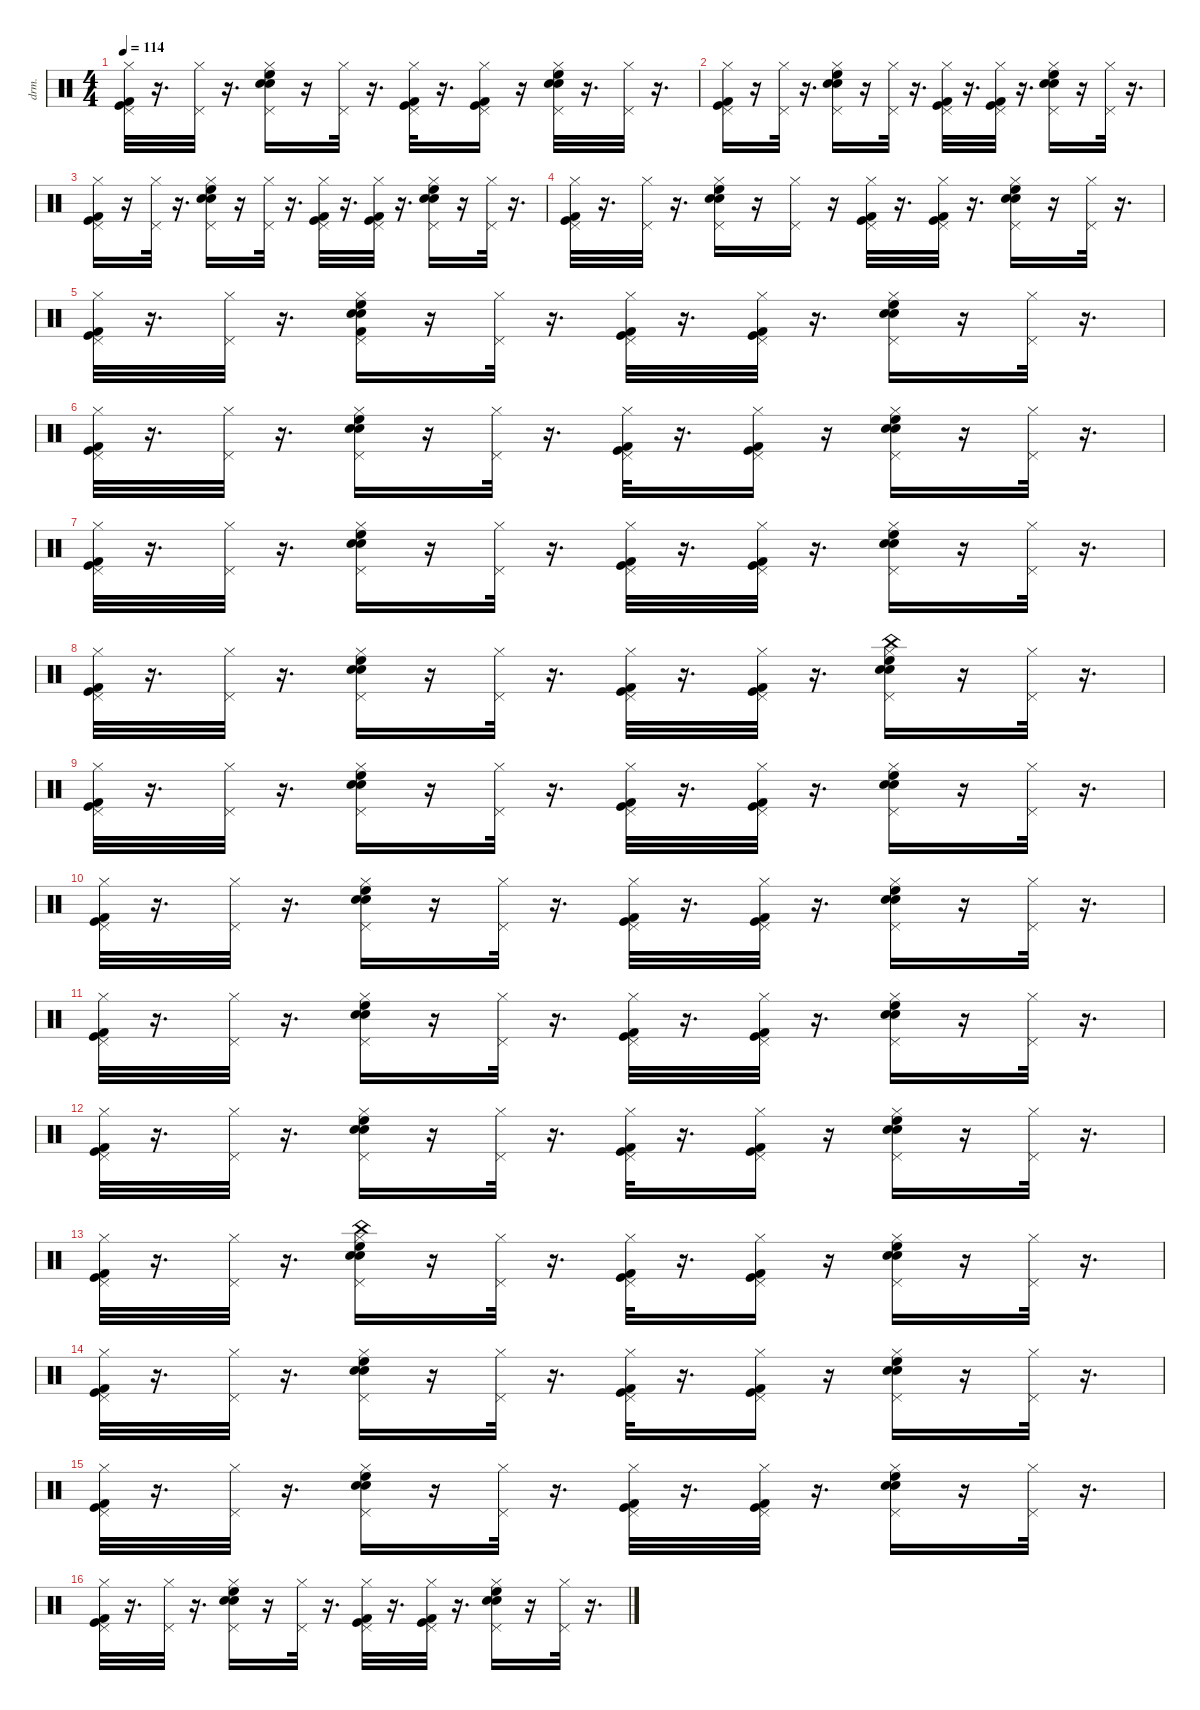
\defaultSystemsLayout 4
\hideDynamics
\bracketExtendMode nobrackets
\otherSystemsTrackNameOrientation horizontal
\track ("Drums" "drm.") {instrument percussion}
\staff {score}
\articulation defaults
\ts (4 4)
\tempo 114
\clef neutral
\ks c
("Kick (hit)" "Pedal Hi-Hat (hit)" "Kick (hit) 2" "Hi-Hat (closed)").32{dy fff} r.16{d} ("Pedal Hi-Hat (hit)" "Hi-Hat (closed)").32{dy f} r.16{d} ("Snare (hit) 2" "High Floor Tom (hit)" "Pedal Hi-Hat (hit)" "Hi-Hat (closed)" "Snare (hit) 2").16{dy fff} r.16 ("Pedal Hi-Hat (hit)" "Hi-Hat (closed)").32{dy f} r.16{d} ("Kick (hit) 2" "Kick (hit)" "Pedal Hi-Hat (hit)" "Hi-Hat (closed)").32{dy fff} r.16{d} ("Kick (hit)" "Kick (hit) 2" "Pedal Hi-Hat (hit)" "Hi-Hat (closed)").16 r.16 ("Snare (hit) 2" "Snare (hit) 2" "High Floor Tom (hit)" "Pedal Hi-Hat (hit)" "Hi-Hat (closed)").32 r.16{d} ("Pedal Hi-Hat (hit)" "Hi-Hat (closed)").32{dy f} r.16{d} |
("Kick (hit)" "Pedal Hi-Hat (hit)" "Hi-Hat (closed)" "Kick (hit) 2").16{dy fff} r.16 ("Pedal Hi-Hat (hit)" "Hi-Hat (closed)").32{dy f} r.16{d} ("High Floor Tom (hit)" "Snare (hit) 2" "Pedal Hi-Hat (hit)" "Hi-Hat (closed)" "Snare (hit) 2").16{dy fff} r.16 ("Pedal Hi-Hat (hit)" "Hi-Hat (closed)").32{dy f} r.16{d} ("Pedal Hi-Hat (hit)" "Kick (hit) 2" "Kick (hit)" "Hi-Hat (closed)").32{dy ff} r.16{d} ("Pedal Hi-Hat (hit)" "Kick (hit)" "Hi-Hat (closed)" "Kick (hit) 2").32{dy f} r.16{d} ("Snare (hit) 2" "High Floor Tom (hit)" "Pedal Hi-Hat (hit)" "Hi-Hat (closed)" "Snare (hit) 2").16{dy fff} r.16 ("Pedal Hi-Hat (hit)" "Hi-Hat (closed)").32{dy f} r.16{d} |
("Kick (hit)" "Kick (hit) 2" "Pedal Hi-Hat (hit)" "Hi-Hat (closed)").16{dy fff} r.16 ("Pedal Hi-Hat (hit)" "Hi-Hat (closed)").32{dy f} r.16{d} ("Snare (hit) 2" "Pedal Hi-Hat (hit)" "Hi-Hat (closed)" "High Floor Tom (hit)" "Snare (hit) 2").16{dy fff} r.16 ("Pedal Hi-Hat (hit)" "Hi-Hat (closed)").32{dy f} r.16{d} ("Pedal Hi-Hat (hit)" "Hi-Hat (closed)" "Kick (hit) 2" "Kick (hit)").32{dy ff} r.16{d} ("Kick (hit) 2" "Pedal Hi-Hat (hit)" "Kick (hit)" "Hi-Hat (closed)").32{dy fff} r.16{d} ("Snare (hit) 2" "High Floor Tom (hit)" "Snare (hit) 2" "Pedal Hi-Hat (hit)" "Hi-Hat (closed)").16 r.16 ("Pedal Hi-Hat (hit)" "Hi-Hat (closed)").32{dy f} r.16{d} |
("Kick (hit)" "Kick (hit) 2" "Pedal Hi-Hat (hit)" "Hi-Hat (closed)").32{dy fff} r.16{d} ("Pedal Hi-Hat (hit)" "Hi-Hat (closed)").32{dy f} r.16{d} ("Pedal Hi-Hat (hit)" "Snare (hit) 2" "Hi-Hat (closed)" "Snare (hit) 2" "High Floor Tom (hit)").16{dy ff} r.16 ("Pedal Hi-Hat (hit)" "Hi-Hat (closed)").16{dy f} r.16 ("Pedal Hi-Hat (hit)" "Hi-Hat (closed)" "Kick (hit) 2" "Kick (hit)").32{dy ff} r.16{d} ("Pedal Hi-Hat (hit)" "Hi-Hat (closed)" "Kick (hit)" "Kick (hit) 2").32 r.16{d} ("Snare (hit) 2" "Pedal Hi-Hat (hit)" "Hi-Hat (closed)" "Snare (hit) 2" "High Floor Tom (hit)").16{dy fff} r.16 ("Pedal Hi-Hat (hit)" "Hi-Hat (closed)").32{dy f} r.16{d} |
("Pedal Hi-Hat (hit)" "Kick (hit)" "Hi-Hat (closed)" "Kick (hit) 2").32 r.16{d} ("Pedal Hi-Hat (hit)" "Hi-Hat (closed)").32{dy ff} r.16{d} ("Kick (hit) 2" "Pedal Hi-Hat (hit)" "Snare (hit) 2" "Hi-Hat (closed)" "High Floor Tom (hit)" "Snare (hit) 2").16 r.16 ("Pedal Hi-Hat (hit)" "Hi-Hat (closed)").32{dy f} r.16{d} ("Pedal Hi-Hat (hit)" "Kick (hit) 2" "Kick (hit)" "Hi-Hat (closed)").32{dy ff} r.16{d} ("Pedal Hi-Hat (hit)" "Hi-Hat (closed)" "Kick (hit)" "Kick (hit) 2").32{dy f} r.16{d} ("Pedal Hi-Hat (hit)" "Hi-Hat (closed)" "High Floor Tom (hit)" "Snare (hit) 2" "Snare (hit) 2").16{dy ff} r.16 ("Pedal Hi-Hat (hit)" "Hi-Hat (closed)").32{dy f} r.16{d} |
("Kick (hit)" "Kick (hit) 2" "Pedal Hi-Hat (hit)" "Hi-Hat (closed)").32{dy fff} r.16{d} ("Pedal Hi-Hat (hit)" "Hi-Hat (closed)").32{dy ff} r.16{d} ("Snare (hit) 2" "Pedal Hi-Hat (hit)" "Snare (hit) 2" "Hi-Hat (closed)" "High Floor Tom (hit)").16{dy fff} r.16 ("Pedal Hi-Hat (hit)" "Hi-Hat (closed)").32{dy f} r.16{d} ("Kick (hit)" "Kick (hit) 2" "Pedal Hi-Hat (hit)" "Hi-Hat (closed)").32{dy fff} r.16{d} ("Kick (hit)" "Pedal Hi-Hat (hit)" "Hi-Hat (closed)" "Kick (hit) 2").16 r.16 ("Snare (hit) 2" "High Floor Tom (hit)" "Pedal Hi-Hat (hit)" "Hi-Hat (closed)" "Snare (hit) 2").16 r.16 ("Pedal Hi-Hat (hit)" "Hi-Hat (closed)").32{dy ff} r.16{d} |
("Kick (hit)" "Pedal Hi-Hat (hit)" "Hi-Hat (closed)" "Kick (hit) 2").32{dy fff} r.16{d} ("Pedal Hi-Hat (hit)" "Hi-Hat (closed)").32{dy ff} r.16{d} ("Snare (hit) 2" "High Floor Tom (hit)" "Pedal Hi-Hat (hit)" "Snare (hit) 2" "Hi-Hat (closed)").16{dy fff} r.16 ("Pedal Hi-Hat (hit)" "Hi-Hat (closed)").32{dy ff} r.16{d} ("Kick (hit) 2" "Kick (hit)" "Pedal Hi-Hat (hit)" "Hi-Hat (closed)").32{dy fff} r.16{d} ("Kick (hit) 2" "Kick (hit)" "Pedal Hi-Hat (hit)" "Hi-Hat (closed)").32 r.16{d} ("Snare (hit) 2" "Snare (hit) 2" "Pedal Hi-Hat (hit)" "Hi-Hat (closed)" "High Floor Tom (hit)").16 r.16 ("Pedal Hi-Hat (hit)" "Hi-Hat (closed)").32{dy f} r.16{d} |
("Kick (hit)" "Kick (hit) 2" "Pedal Hi-Hat (hit)" "Hi-Hat (closed)").32{dy fff} r.16{d} ("Pedal Hi-Hat (hit)" "Hi-Hat (closed)").32{dy ff} r.16{d} ("Snare (hit) 2" "Pedal Hi-Hat (hit)" "Hi-Hat (closed)" "Snare (hit) 2" "High Floor Tom (hit)").16{dy fff} r.16 ("Pedal Hi-Hat (hit)" "Hi-Hat (closed)").32{dy ff} r.16{d} ("Kick (hit)" "Kick (hit) 2" "Pedal Hi-Hat (hit)" "Hi-Hat (closed)").32{dy fff} r.16{d} ("Kick (hit)" "Pedal Hi-Hat (hit)" "Hi-Hat (closed)" "Kick (hit) 2").32 r.16{d} ("Snare (hit) 2" "Snare (hit) 2" "Pedal Hi-Hat (hit)" "Hi-Hat (closed)" "China (hit)" "High Floor Tom (hit)").16 r.16 ("Pedal Hi-Hat (hit)" "Hi-Hat (closed)").32{dy ff} r.16{d} |
("Kick (hit)" "Pedal Hi-Hat (hit)" "Hi-Hat (closed)" "Kick (hit) 2").32{dy fff} r.16{d} ("Pedal Hi-Hat (hit)" "Hi-Hat (closed)").32{dy ff} r.16{d} ("Pedal Hi-Hat (hit)" "Hi-Hat (closed)" "Snare (hit) 2" "Snare (hit) 2" "High Floor Tom (hit)").16 r.16 ("Pedal Hi-Hat (hit)" "Hi-Hat (closed)").32 r.16{d} ("Pedal Hi-Hat (hit)" "Hi-Hat (closed)" "Kick (hit)" "Kick (hit) 2").32 r.16{d} ("Pedal Hi-Hat (hit)" "Hi-Hat (closed)" "Kick (hit)" "Kick (hit) 2").32 r.16{d} ("Snare (hit) 2" "High Floor Tom (hit)" "Pedal Hi-Hat (hit)" "Hi-Hat (closed)" "Snare (hit) 2").16{dy fff} r.16 ("Pedal Hi-Hat (hit)" "Hi-Hat (closed)").32{dy ff} r.16{d} |
("Kick (hit)" "Hi-Hat (closed)" "Pedal Hi-Hat (hit)" "Kick (hit) 2").32{dy fff} r.16{d} ("Hi-Hat (closed)" "Pedal Hi-Hat (hit)").32{dy ff} r.16{d} ("Snare (hit) 2" "Pedal Hi-Hat (hit)" "Hi-Hat (closed)" "Snare (hit) 2" "High Floor Tom (hit)").16{dy fff} r.16 ("Pedal Hi-Hat (hit)" "Hi-Hat (closed)").32{dy f} r.16{d} ("Pedal Hi-Hat (hit)" "Kick (hit)" "Hi-Hat (closed)" "Kick (hit) 2").32{dy ff} r.16{d} ("Kick (hit)" "Pedal Hi-Hat (hit)" "Hi-Hat (closed)" "Kick (hit) 2").32{dy fff} r.16{d} ("Snare (hit) 2" "High Floor Tom (hit)" "Pedal Hi-Hat (hit)" "Hi-Hat (closed)" "Snare (hit) 2").16 r.16 ("Pedal Hi-Hat (hit)" "Hi-Hat (closed)").32{dy f} r.16{d} |
("Kick (hit)" "Kick (hit) 2" "Pedal Hi-Hat (hit)" "Hi-Hat (closed)").32{dy fff} r.16{d} ("Pedal Hi-Hat (hit)" "Hi-Hat (closed)").32{dy ff} r.16{d} ("Snare (hit) 2" "Pedal Hi-Hat (hit)" "Hi-Hat (closed)" "High Floor Tom (hit)" "Snare (hit) 2").16{dy fff} r.16 ("Pedal Hi-Hat (hit)" "Hi-Hat (closed)").32{dy ff} r.16{d} ("Kick (hit)" "Pedal Hi-Hat (hit)" "Hi-Hat (closed)" "Kick (hit) 2").32{dy fff} r.16{d} ("Pedal Hi-Hat (hit)" "Hi-Hat (closed)" "Kick (hit) 2" "Kick (hit)").32{dy ff} r.16{d} ("Snare (hit) 2" "Pedal Hi-Hat (hit)" "Hi-Hat (closed)" "Snare (hit) 2" "High Floor Tom (hit)").16{dy fff} r.16 ("Pedal Hi-Hat (hit)" "Hi-Hat (closed)").32{dy f} r.16{d} |
("Kick (hit)" "Pedal Hi-Hat (hit)" "Kick (hit) 2" "Hi-Hat (closed)").32{dy fff} r.16{d} ("Pedal Hi-Hat (hit)" "Hi-Hat (closed)").32{dy f} r.16{d} ("Pedal Hi-Hat (hit)" "Hi-Hat (closed)" "Snare (hit) 2" "Snare (hit) 2" "High Floor Tom (hit)").16{dy ff} r.16 ("Pedal Hi-Hat (hit)" "Hi-Hat (closed)").32 r.16{d} ("Pedal Hi-Hat (hit)" "Hi-Hat (closed)" "Kick (hit)" "Kick (hit) 2").32 r.16{d} ("Pedal Hi-Hat (hit)" "Hi-Hat (closed)" "Kick (hit)" "Kick (hit) 2").16 r.16 ("Pedal Hi-Hat (hit)" "Snare (hit) 2" "Hi-Hat (closed)" "High Floor Tom (hit)" "Snare (hit) 2").16 r.16 ("Pedal Hi-Hat (hit)" "Hi-Hat (closed)").32 r.16{d} |
("Pedal Hi-Hat (hit)" "Kick (hit)" "Hi-Hat (closed)" "Kick (hit) 2").32 r.16{d} ("Pedal Hi-Hat (hit)" "Hi-Hat (closed)").32 r.16{d} ("Pedal Hi-Hat (hit)" "Hi-Hat (closed)" "China (hit)" "High Floor Tom (hit)" "Snare (hit) 2" "Snare (hit) 2").16 r.16 ("Pedal Hi-Hat (hit)" "Hi-Hat (closed)").32{dy f} r.16{d} ("Kick (hit) 2" "Pedal Hi-Hat (hit)" "Hi-Hat (closed)" "Kick (hit)").32{dy fff} r.16{d} ("Pedal Hi-Hat (hit)" "Hi-Hat (closed)" "Kick (hit) 2" "Kick (hit)").16{dy ff} r.16 ("Snare (hit) 2" "High Floor Tom (hit)" "Pedal Hi-Hat (hit)" "Hi-Hat (closed)" "Snare (hit) 2").16{dy fff} r.16 ("Pedal Hi-Hat (hit)" "Hi-Hat (closed)").32{dy ff} r.16{d} |
("Kick (hit) 2" "Kick (hit)" "Pedal Hi-Hat (hit)" "Hi-Hat (closed)").32{dy fff} r.16{d} ("Pedal Hi-Hat (hit)" "Hi-Hat (closed)").32{dy ff} r.16{d} ("Snare (hit) 2" "Snare (hit) 2" "Pedal Hi-Hat (hit)" "Hi-Hat (closed)" "High Floor Tom (hit)").16{dy fff} r.16 ("Pedal Hi-Hat (hit)" "Hi-Hat (closed)").32{dy ff} r.16{d} ("Kick (hit) 2" "Kick (hit)" "Pedal Hi-Hat (hit)" "Hi-Hat (closed)").32{dy fff} r.16{d} ("Pedal Hi-Hat (hit)" "Hi-Hat (closed)" "Kick (hit)" "Kick (hit) 2").16{dy ff} r.16 ("Snare (hit) 2" "Snare (hit) 2" "High Floor Tom (hit)" "Pedal Hi-Hat (hit)" "Hi-Hat (closed)").16{dy fff} r.16 ("Pedal Hi-Hat (hit)" "Hi-Hat (closed)").32{dy ff} r.16{d} |
("Kick (hit) 2" "Kick (hit)" "Pedal Hi-Hat (hit)" "Hi-Hat (closed)").32{dy fff} r.16{d} ("Pedal Hi-Hat (hit)" "Hi-Hat (closed)").32{dy f} r.16{d} ("Snare (hit) 2" "Pedal Hi-Hat (hit)" "Hi-Hat (closed)" "Snare (hit) 2" "High Floor Tom (hit)").16{dy fff} r.16 ("Pedal Hi-Hat (hit)" "Hi-Hat (closed)").32{dy f} r.16{d} ("Kick (hit) 2" "Kick (hit)" "Pedal Hi-Hat (hit)" "Hi-Hat (closed)").32{dy fff} r.16{d} ("Kick (hit)" "Pedal Hi-Hat (hit)" "Hi-Hat (closed)" "Kick (hit) 2").32 r.16{d} ("High Floor Tom (hit)" "Snare (hit) 2" "Pedal Hi-Hat (hit)" "Snare (hit) 2" "Hi-Hat (closed)").16 r.16 ("Pedal Hi-Hat (hit)" "Hi-Hat (closed)").32{dy f} r.16{d} |
("Kick (hit)" "Pedal Hi-Hat (hit)" "Hi-Hat (closed)" "Kick (hit) 2").32{dy fff} r.16{d} ("Pedal Hi-Hat (hit)" "Hi-Hat (closed)").32{dy f} r.16{d} ("Snare (hit) 2" "Snare (hit) 2" "Pedal Hi-Hat (hit)" "Hi-Hat (closed)" "High Floor Tom (hit)").16{dy fff} r.16 ("Pedal Hi-Hat (hit)" "Hi-Hat (closed)").32{dy f} r.16{d} ("Pedal Hi-Hat (hit)" "Hi-Hat (closed)" "Kick (hit)" "Kick (hit) 2").32{dy ff} r.16{d} ("Pedal Hi-Hat (hit)" "Hi-Hat (closed)" "Kick (hit)" "Kick (hit) 2").32{dy f} r.16{d} ("Pedal Hi-Hat (hit)" "Hi-Hat (closed)" "Snare (hit) 2" "High Floor Tom (hit)" "Snare (hit) 2").16 r.16 ("Pedal Hi-Hat (hit)" "Hi-Hat (closed)").32{dy ff} r.16{d}
